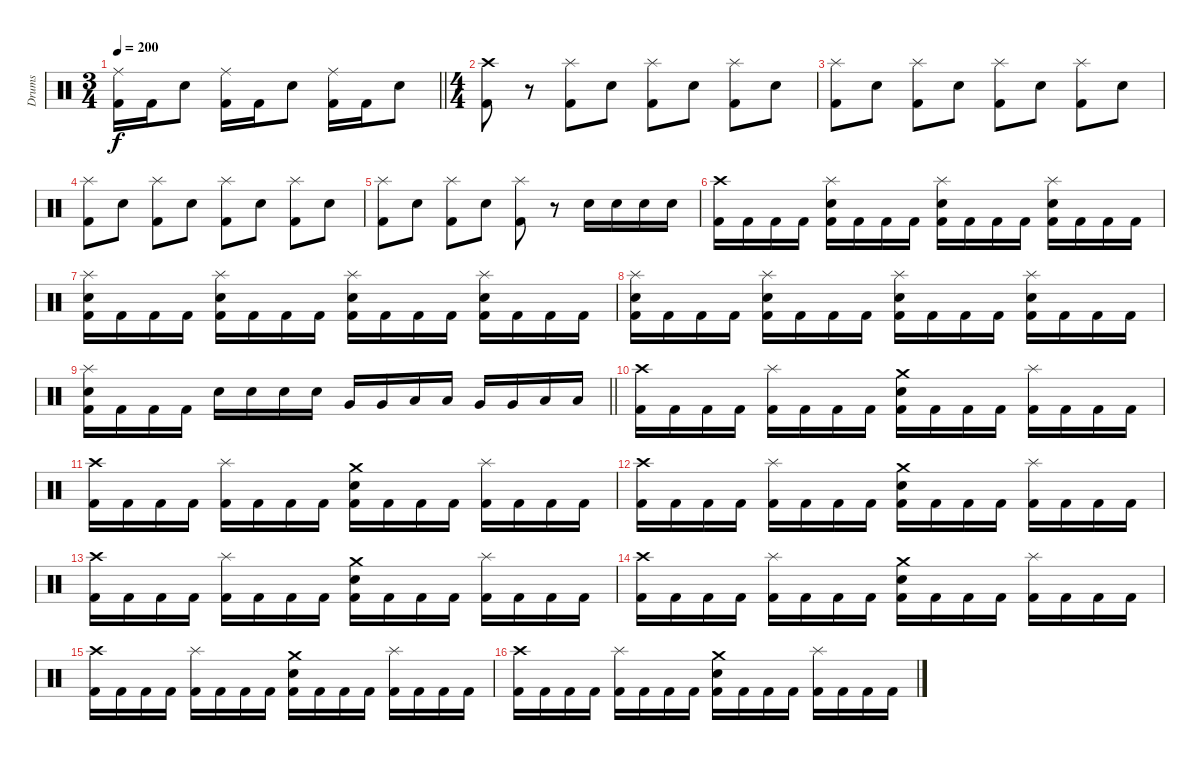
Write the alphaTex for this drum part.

\track ("Drums" "Drums") {instrument percussion}
\staff {score}
\articulation defaults
\ts (3 4)
\tempo 200
\clef neutral
\barLineRight lightlight
\ks c
("Ride (middle)" "Kick (hit) 2").16{dy f} "Kick (hit) 2".16 "Electric Snare (hit)".8 ("Ride (middle)" "Kick (hit) 2").16 "Kick (hit) 2".16 "Electric Snare (hit)".8 ("Ride (middle)" "Kick (hit) 2").16 "Kick (hit) 2".16 "Electric Snare (hit)".8 |
\ts (4 4)
("Crash high (hit)" "Kick (hit) 2").8 r.8 ("Splash (hit)" "Kick (hit) 2").8 "Electric Snare (hit)".8 ("Splash (hit)" "Kick (hit) 2").8 "Electric Snare (hit)".8 ("Splash (hit)" "Kick (hit) 2").8 "Electric Snare (hit)".8 |
("Splash (hit)" "Kick (hit) 2").8 "Electric Snare (hit)".8 ("Splash (hit)" "Kick (hit) 2").8 "Electric Snare (hit)".8 ("Splash (hit)" "Kick (hit) 2").8 "Electric Snare (hit)".8 ("Splash (hit)" "Kick (hit) 2").8 "Electric Snare (hit)".8 |
("Splash (hit)" "Kick (hit) 2").8 "Electric Snare (hit)".8 ("Splash (hit)" "Kick (hit) 2").8 "Electric Snare (hit)".8 ("Splash (hit)" "Kick (hit) 2").8 "Electric Snare (hit)".8 ("Splash (hit)" "Kick (hit) 2").8 "Electric Snare (hit)".8 |
("Splash (hit)" "Kick (hit) 2").8 "Electric Snare (hit)".8 ("Splash (hit)" "Kick (hit) 2").8 "Electric Snare (hit)".8 ("Splash (hit)" "Kick (hit) 2").8 r.8 "Electric Snare (hit)".16 "Electric Snare (hit)".16 "Electric Snare (hit)".16 "Electric Snare (hit)".16 |
("Crash high (hit)" "Kick (hit) 2").16 "Kick (hit) 2".16 "Kick (hit) 2".16 "Kick (hit) 2".16 ("Splash (hit)" "Electric Snare (hit)" "Kick (hit) 2").16 "Kick (hit) 2".16 "Kick (hit) 2".16 "Kick (hit) 2".16 ("Splash (hit)" "Electric Snare (hit)" "Kick (hit) 2").16 "Kick (hit) 2".16 "Kick (hit) 2".16 "Kick (hit) 2".16 ("Splash (hit)" "Electric Snare (hit)" "Kick (hit) 2").16 "Kick (hit) 2".16 "Kick (hit) 2".16 "Kick (hit) 2".16 |
("Splash (hit)" "Electric Snare (hit)" "Kick (hit) 2").16 "Kick (hit) 2".16 "Kick (hit) 2".16 "Kick (hit) 2".16 ("Splash (hit)" "Electric Snare (hit)" "Kick (hit) 2").16 "Kick (hit) 2".16 "Kick (hit) 2".16 "Kick (hit) 2".16 ("Splash (hit)" "Electric Snare (hit)" "Kick (hit) 2").16 "Kick (hit) 2".16 "Kick (hit) 2".16 "Kick (hit) 2".16 ("Splash (hit)" "Electric Snare (hit)" "Kick (hit) 2").16 "Kick (hit) 2".16 "Kick (hit) 2".16 "Kick (hit) 2".16 |
("Splash (hit)" "Electric Snare (hit)" "Kick (hit) 2").16 "Kick (hit) 2".16 "Kick (hit) 2".16 "Kick (hit) 2".16 ("Splash (hit)" "Electric Snare (hit)" "Kick (hit) 2").16 "Kick (hit) 2".16 "Kick (hit) 2".16 "Kick (hit) 2".16 ("Splash (hit)" "Electric Snare (hit)" "Kick (hit) 2").16 "Kick (hit) 2".16 "Kick (hit) 2".16 "Kick (hit) 2".16 ("Splash (hit)" "Electric Snare (hit)" "Kick (hit) 2").16 "Kick (hit) 2".16 "Kick (hit) 2".16 "Kick (hit) 2".16 |
\barLineRight lightlight
("Splash (hit)" "Electric Snare (hit)" "Kick (hit) 2").16 "Kick (hit) 2".16 "Kick (hit) 2".16 "Kick (hit) 2".16 "Electric Snare (hit)".16 "Electric Snare (hit)".16 "Electric Snare (hit)".16 "Electric Snare (hit)".16 "Very Low Tom (hit)".16 "Very Low Tom (hit)".16 "Low Tom (hit)".16 "Low Tom (hit)".16 "Very Low Tom (hit)".16 "Very Low Tom (hit)".16 "Low Floor Tom (hit)".16 "Low Floor Tom (hit)".16 |
("Crash high (hit)" "Kick (hit) 2").16 "Kick (hit) 2".16 "Kick (hit) 2".16 "Kick (hit) 2".16 ("Splash (hit)" "Kick (hit) 2").16 "Kick (hit) 2".16 "Kick (hit) 2".16 "Kick (hit) 2".16 ("Crash medium (hit)" "Electric Snare (hit)" "Kick (hit) 2").16 "Kick (hit) 2".16 "Kick (hit) 2".16 "Kick (hit) 2".16 ("Splash (hit)" "Kick (hit) 2").16 "Kick (hit) 2".16 "Kick (hit) 2".16 "Kick (hit) 2".16 |
("Crash high (hit)" "Kick (hit) 2").16 "Kick (hit) 2".16 "Kick (hit) 2".16 "Kick (hit) 2".16 ("Splash (hit)" "Kick (hit) 2").16 "Kick (hit) 2".16 "Kick (hit) 2".16 "Kick (hit) 2".16 ("Crash medium (hit)" "Electric Snare (hit)" "Kick (hit) 2").16 "Kick (hit) 2".16 "Kick (hit) 2".16 "Kick (hit) 2".16 ("Splash (hit)" "Kick (hit) 2").16 "Kick (hit) 2".16 "Kick (hit) 2".16 "Kick (hit) 2".16 |
("Crash high (hit)" "Kick (hit) 2").16 "Kick (hit) 2".16 "Kick (hit) 2".16 "Kick (hit) 2".16 ("Splash (hit)" "Kick (hit) 2").16 "Kick (hit) 2".16 "Kick (hit) 2".16 "Kick (hit) 2".16 ("Crash medium (hit)" "Electric Snare (hit)" "Kick (hit) 2").16 "Kick (hit) 2".16 "Kick (hit) 2".16 "Kick (hit) 2".16 ("Splash (hit)" "Kick (hit) 2").16 "Kick (hit) 2".16 "Kick (hit) 2".16 "Kick (hit) 2".16 |
("Crash high (hit)" "Kick (hit) 2").16 "Kick (hit) 2".16 "Kick (hit) 2".16 "Kick (hit) 2".16 ("Splash (hit)" "Kick (hit) 2").16 "Kick (hit) 2".16 "Kick (hit) 2".16 "Kick (hit) 2".16 ("Crash medium (hit)" "Electric Snare (hit)" "Kick (hit) 2").16 "Kick (hit) 2".16 "Kick (hit) 2".16 "Kick (hit) 2".16 ("Splash (hit)" "Kick (hit) 2").16 "Kick (hit) 2".16 "Kick (hit) 2".16 "Kick (hit) 2".16 |
("Crash high (hit)" "Kick (hit) 2").16 "Kick (hit) 2".16 "Kick (hit) 2".16 "Kick (hit) 2".16 ("Splash (hit)" "Kick (hit) 2").16 "Kick (hit) 2".16 "Kick (hit) 2".16 "Kick (hit) 2".16 ("Crash medium (hit)" "Electric Snare (hit)" "Kick (hit) 2").16 "Kick (hit) 2".16 "Kick (hit) 2".16 "Kick (hit) 2".16 ("Splash (hit)" "Kick (hit) 2").16 "Kick (hit) 2".16 "Kick (hit) 2".16 "Kick (hit) 2".16 |
("Crash high (hit)" "Kick (hit) 2").16 "Kick (hit) 2".16 "Kick (hit) 2".16 "Kick (hit) 2".16 ("Splash (hit)" "Kick (hit) 2").16 "Kick (hit) 2".16 "Kick (hit) 2".16 "Kick (hit) 2".16 ("Crash medium (hit)" "Electric Snare (hit)" "Kick (hit) 2").16 "Kick (hit) 2".16 "Kick (hit) 2".16 "Kick (hit) 2".16 ("Splash (hit)" "Kick (hit) 2").16 "Kick (hit) 2".16 "Kick (hit) 2".16 "Kick (hit) 2".16 |
("Crash high (hit)" "Kick (hit) 2").16 "Kick (hit) 2".16 "Kick (hit) 2".16 "Kick (hit) 2".16 ("Splash (hit)" "Kick (hit) 2").16 "Kick (hit) 2".16 "Kick (hit) 2".16 "Kick (hit) 2".16 ("Crash medium (hit)" "Electric Snare (hit)" "Kick (hit) 2").16 "Kick (hit) 2".16 "Kick (hit) 2".16 "Kick (hit) 2".16 ("Splash (hit)" "Kick (hit) 2").16 "Kick (hit) 2".16 "Kick (hit) 2".16 "Kick (hit) 2".16
